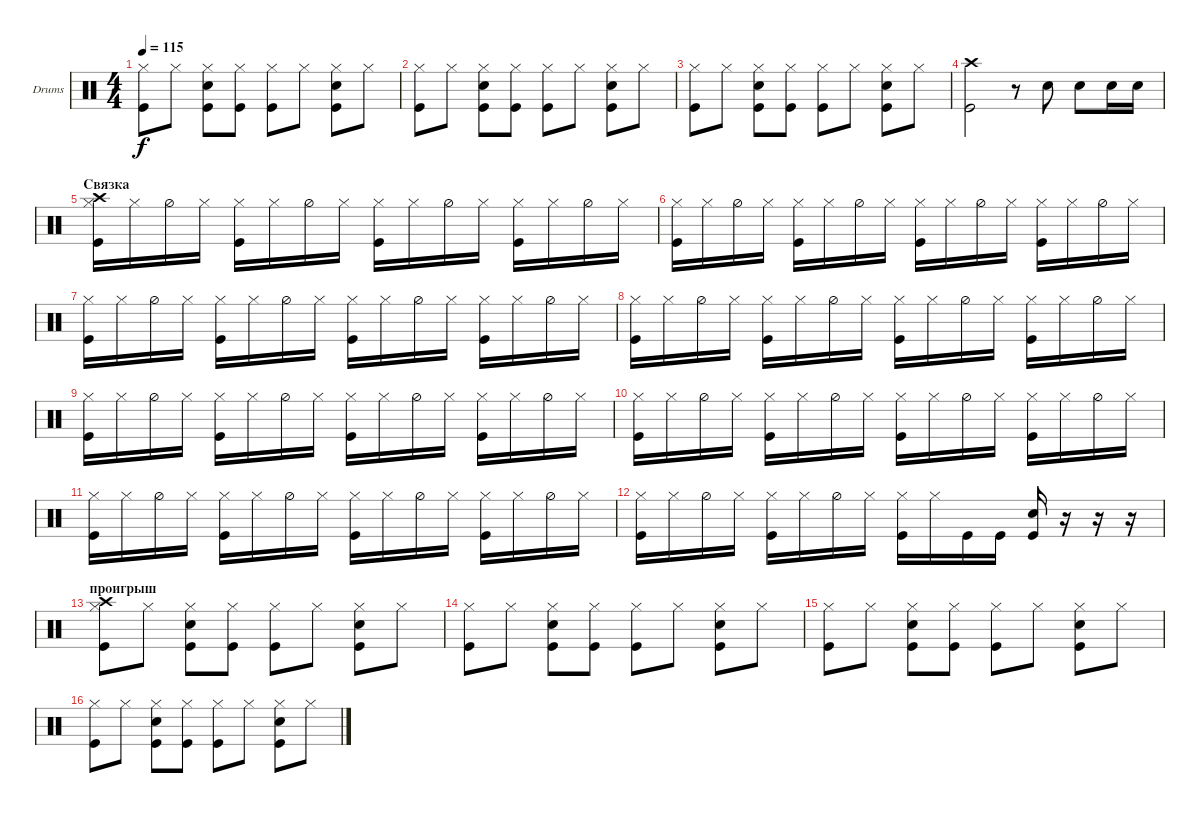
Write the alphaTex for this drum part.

\defaultSystemsLayout 4
\bracketExtendMode groupsimilarinstruments
\firstSystemTrackNameOrientation horizontal
\otherSystemsTrackNameOrientation horizontal
\track ("Drumkit" "Drums") {instrument percussion}
\staff {score}
\articulation defaults
\ts (4 4)
\tempo 115
\clef neutral
\ks c
("Hi-Hat (closed)" "Kick (hit)").8{dy f} "Hi-Hat (closed)".8 ("Hi-Hat (closed)" "Snare (hit) 2" "Kick (hit)").8 ("Hi-Hat (closed)" "Kick (hit)").8 ("Hi-Hat (closed)" "Kick (hit)").8 "Hi-Hat (closed)".8 ("Hi-Hat (closed)" "Kick (hit)" "Snare (hit) 2").8 "Hi-Hat (closed)".8 |
("Hi-Hat (closed)" "Kick (hit)").8 "Hi-Hat (closed)".8 ("Hi-Hat (closed)" "Snare (hit) 2" "Kick (hit)").8 ("Hi-Hat (closed)" "Kick (hit)").8 ("Hi-Hat (closed)" "Kick (hit)").8 "Hi-Hat (closed)".8 ("Hi-Hat (closed)" "Kick (hit)" "Snare (hit) 2").8 "Hi-Hat (closed)".8 |
("Hi-Hat (closed)" "Kick (hit)").8 "Hi-Hat (closed)".8 ("Hi-Hat (closed)" "Snare (hit) 2" "Kick (hit)").8 ("Hi-Hat (closed)" "Kick (hit)").8 ("Hi-Hat (closed)" "Kick (hit)").8 "Hi-Hat (closed)".8 ("Hi-Hat (closed)" "Kick (hit)" "Snare (hit) 2").8 "Hi-Hat (closed)".8 |
("Crash high (hit)" "Kick (hit)").2 r.8 "Snare (hit) 2".8 "Snare (hit) 2".8 "Snare (hit) 2".16 "Snare (hit) 2".16 |
\section ("" "Связка")
("Hi-Hat (closed)" "Kick (hit)" "Crash high (hit)").16 "Hi-Hat (closed)".16 "Hi-Hat (half)".16 "Hi-Hat (closed)".16 ("Hi-Hat (closed)" "Kick (hit)").16 "Hi-Hat (closed)".16 "Hi-Hat (half)".16 "Hi-Hat (closed)".16 ("Hi-Hat (closed)" "Kick (hit)").16 "Hi-Hat (closed)".16 "Hi-Hat (half)".16 "Hi-Hat (closed)".16 ("Hi-Hat (closed)" "Kick (hit)").16 "Hi-Hat (closed)".16 "Hi-Hat (half)".16 "Hi-Hat (closed)".16 |
("Hi-Hat (closed)" "Kick (hit)").16 "Hi-Hat (closed)".16 "Hi-Hat (half)".16 "Hi-Hat (closed)".16 ("Hi-Hat (closed)" "Kick (hit)").16 "Hi-Hat (closed)".16 "Hi-Hat (half)".16 "Hi-Hat (closed)".16 ("Hi-Hat (closed)" "Kick (hit)").16 "Hi-Hat (closed)".16 "Hi-Hat (half)".16 "Hi-Hat (closed)".16 ("Hi-Hat (closed)" "Kick (hit)").16 "Hi-Hat (closed)".16 "Hi-Hat (half)".16 "Hi-Hat (closed)".16 |
("Hi-Hat (closed)" "Kick (hit)").16 "Hi-Hat (closed)".16 "Hi-Hat (half)".16 "Hi-Hat (closed)".16 ("Hi-Hat (closed)" "Kick (hit)").16 "Hi-Hat (closed)".16 "Hi-Hat (half)".16 "Hi-Hat (closed)".16 ("Hi-Hat (closed)" "Kick (hit)").16 "Hi-Hat (closed)".16 "Hi-Hat (half)".16 "Hi-Hat (closed)".16 ("Hi-Hat (closed)" "Kick (hit)").16 "Hi-Hat (closed)".16 "Hi-Hat (half)".16 "Hi-Hat (closed)".16 |
("Hi-Hat (closed)" "Kick (hit)").16 "Hi-Hat (closed)".16 "Hi-Hat (half)".16 "Hi-Hat (closed)".16 ("Hi-Hat (closed)" "Kick (hit)").16 "Hi-Hat (closed)".16 "Hi-Hat (half)".16 "Hi-Hat (closed)".16 ("Hi-Hat (closed)" "Kick (hit)").16 "Hi-Hat (closed)".16 "Hi-Hat (half)".16 "Hi-Hat (closed)".16 ("Hi-Hat (closed)" "Kick (hit)").16 "Hi-Hat (closed)".16 "Hi-Hat (half)".16 "Hi-Hat (closed)".16 |
("Hi-Hat (closed)" "Kick (hit)").16 "Hi-Hat (closed)".16 "Hi-Hat (half)".16 "Hi-Hat (closed)".16 ("Hi-Hat (closed)" "Kick (hit)").16 "Hi-Hat (closed)".16 "Hi-Hat (half)".16 "Hi-Hat (closed)".16 ("Hi-Hat (closed)" "Kick (hit)").16 "Hi-Hat (closed)".16 "Hi-Hat (half)".16 "Hi-Hat (closed)".16 ("Hi-Hat (closed)" "Kick (hit)").16 "Hi-Hat (closed)".16 "Hi-Hat (half)".16 "Hi-Hat (closed)".16 |
("Hi-Hat (closed)" "Kick (hit)").16 "Hi-Hat (closed)".16 "Hi-Hat (half)".16 "Hi-Hat (closed)".16 ("Hi-Hat (closed)" "Kick (hit)").16 "Hi-Hat (closed)".16 "Hi-Hat (half)".16 "Hi-Hat (closed)".16 ("Hi-Hat (closed)" "Kick (hit)").16 "Hi-Hat (closed)".16 "Hi-Hat (half)".16 "Hi-Hat (closed)".16 ("Hi-Hat (closed)" "Kick (hit)").16 "Hi-Hat (closed)".16 "Hi-Hat (half)".16 "Hi-Hat (closed)".16 |
("Hi-Hat (closed)" "Kick (hit)").16 "Hi-Hat (closed)".16 "Hi-Hat (half)".16 "Hi-Hat (closed)".16 ("Hi-Hat (closed)" "Kick (hit)").16 "Hi-Hat (closed)".16 "Hi-Hat (half)".16 "Hi-Hat (closed)".16 ("Hi-Hat (closed)" "Kick (hit)").16 "Hi-Hat (closed)".16 "Hi-Hat (half)".16 "Hi-Hat (closed)".16 ("Hi-Hat (closed)" "Kick (hit)").16 "Hi-Hat (closed)".16 "Hi-Hat (half)".16 "Hi-Hat (closed)".16 |
("Hi-Hat (closed)" "Kick (hit)").16 "Hi-Hat (closed)".16 "Hi-Hat (half)".16 "Hi-Hat (closed)".16 ("Hi-Hat (closed)" "Kick (hit)").16 "Hi-Hat (closed)".16 "Hi-Hat (half)".16 "Hi-Hat (closed)".16 ("Hi-Hat (closed)" "Kick (hit)").16 "Hi-Hat (closed)".16 "Kick (hit)".16 "Kick (hit)".16 ("Kick (hit)" "Snare (hit) 2").16 r.16 r.16 r.16 |
\section ("" "проигрыш")
("Hi-Hat (closed)" "Kick (hit)" "Crash high (hit)").8 "Hi-Hat (closed)".8 ("Hi-Hat (closed)" "Snare (hit) 2" "Kick (hit)").8 ("Hi-Hat (closed)" "Kick (hit)").8 ("Hi-Hat (closed)" "Kick (hit)").8 "Hi-Hat (closed)".8 ("Hi-Hat (closed)" "Kick (hit)" "Snare (hit) 2").8 "Hi-Hat (closed)".8 |
("Hi-Hat (closed)" "Kick (hit)").8 "Hi-Hat (closed)".8 ("Hi-Hat (closed)" "Snare (hit) 2" "Kick (hit)").8 ("Hi-Hat (closed)" "Kick (hit)").8 ("Hi-Hat (closed)" "Kick (hit)").8 "Hi-Hat (closed)".8 ("Hi-Hat (closed)" "Kick (hit)" "Snare (hit) 2").8 "Hi-Hat (closed)".8 |
("Hi-Hat (closed)" "Kick (hit)").8 "Hi-Hat (closed)".8 ("Hi-Hat (closed)" "Snare (hit) 2" "Kick (hit)").8 ("Hi-Hat (closed)" "Kick (hit)").8 ("Hi-Hat (closed)" "Kick (hit)").8 "Hi-Hat (closed)".8 ("Hi-Hat (closed)" "Kick (hit)" "Snare (hit) 2").8 "Hi-Hat (closed)".8 |
("Hi-Hat (closed)" "Kick (hit)").8 "Hi-Hat (closed)".8 ("Hi-Hat (closed)" "Snare (hit) 2" "Kick (hit)").8 ("Hi-Hat (closed)" "Kick (hit)").8 ("Hi-Hat (closed)" "Kick (hit)").8 "Hi-Hat (closed)".8 ("Hi-Hat (closed)" "Kick (hit)" "Snare (hit) 2").8 "Hi-Hat (closed)".8
